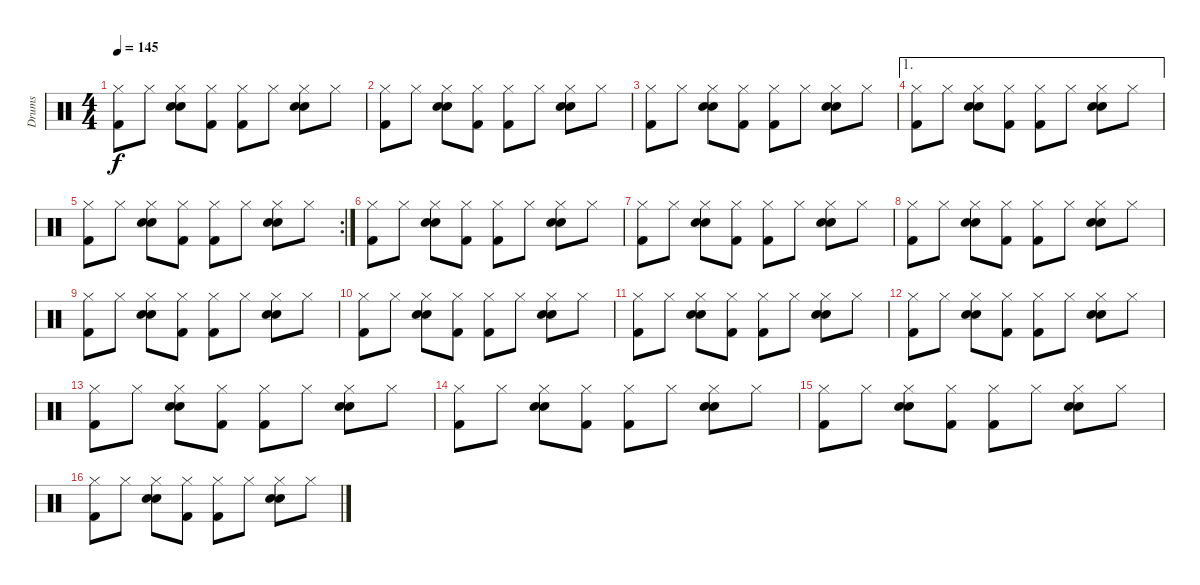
\track ("Drums" "Drums") {instrument percussion}
\staff {score}
\articulation defaults
\ts (4 4)
\tempo 145
\clef neutral
\ks c
("Hi-Hat (closed)" "Kick (hit) 2").8{dy f} "Hi-Hat (closed)".8 ("Hi-Hat (closed)" "Electric Snare (hit)" "Snare (hit) 2").8 ("Hi-Hat (closed)" "Kick (hit) 2").8 ("Hi-Hat (closed)" "Kick (hit) 2").8 "Hi-Hat (closed)".8 ("Hi-Hat (closed)" "Electric Snare (hit)" "Snare (hit) 2").8 "Hi-Hat (closed)".8 |
("Hi-Hat (closed)" "Kick (hit) 2").8 "Hi-Hat (closed)".8 ("Hi-Hat (closed)" "Electric Snare (hit)" "Snare (hit) 2").8 ("Hi-Hat (closed)" "Kick (hit) 2").8 ("Hi-Hat (closed)" "Kick (hit) 2").8 "Hi-Hat (closed)".8 ("Hi-Hat (closed)" "Electric Snare (hit)" "Snare (hit) 2").8 "Hi-Hat (closed)".8 |
("Hi-Hat (closed)" "Kick (hit) 2").8 "Hi-Hat (closed)".8 ("Hi-Hat (closed)" "Electric Snare (hit)" "Snare (hit) 2").8 ("Hi-Hat (closed)" "Kick (hit) 2").8 ("Hi-Hat (closed)" "Kick (hit) 2").8 "Hi-Hat (closed)".8 ("Hi-Hat (closed)" "Electric Snare (hit)" "Snare (hit) 2").8 "Hi-Hat (closed)".8 |
\ae 1
("Hi-Hat (closed)" "Kick (hit) 2").8 "Hi-Hat (closed)".8 ("Hi-Hat (closed)" "Electric Snare (hit)" "Snare (hit) 2").8 ("Hi-Hat (closed)" "Kick (hit) 2").8 ("Hi-Hat (closed)" "Kick (hit) 2").8 "Hi-Hat (closed)".8 ("Hi-Hat (closed)" "Electric Snare (hit)" "Snare (hit) 2").8 "Hi-Hat (closed)".8 |
\rc 2
("Hi-Hat (closed)" "Kick (hit) 2").8 "Hi-Hat (closed)".8 ("Hi-Hat (closed)" "Electric Snare (hit)" "Snare (hit) 2").8 ("Hi-Hat (closed)" "Kick (hit) 2").8 ("Hi-Hat (closed)" "Kick (hit) 2").8 "Hi-Hat (closed)".8 ("Hi-Hat (closed)" "Electric Snare (hit)" "Snare (hit) 2").8 "Hi-Hat (closed)".8 |
("Hi-Hat (closed)" "Kick (hit) 2").8 "Hi-Hat (closed)".8 ("Hi-Hat (closed)" "Electric Snare (hit)" "Snare (hit) 2").8 ("Hi-Hat (closed)" "Kick (hit) 2").8 ("Hi-Hat (closed)" "Kick (hit) 2").8 "Hi-Hat (closed)".8 ("Hi-Hat (closed)" "Electric Snare (hit)" "Snare (hit) 2").8 "Hi-Hat (closed)".8 |
("Hi-Hat (closed)" "Kick (hit) 2").8 "Hi-Hat (closed)".8 ("Hi-Hat (closed)" "Electric Snare (hit)" "Snare (hit) 2").8 ("Hi-Hat (closed)" "Kick (hit) 2").8 ("Hi-Hat (closed)" "Kick (hit) 2").8 "Hi-Hat (closed)".8 ("Hi-Hat (closed)" "Electric Snare (hit)" "Snare (hit) 2").8 "Hi-Hat (closed)".8 |
("Hi-Hat (closed)" "Kick (hit) 2").8 "Hi-Hat (closed)".8 ("Hi-Hat (closed)" "Electric Snare (hit)" "Snare (hit) 2").8 ("Hi-Hat (closed)" "Kick (hit) 2").8 ("Hi-Hat (closed)" "Kick (hit) 2").8 "Hi-Hat (closed)".8 ("Hi-Hat (closed)" "Electric Snare (hit)" "Snare (hit) 2").8 "Hi-Hat (closed)".8 |
("Hi-Hat (closed)" "Kick (hit) 2").8 "Hi-Hat (closed)".8 ("Hi-Hat (closed)" "Electric Snare (hit)" "Snare (hit) 2").8 ("Hi-Hat (closed)" "Kick (hit) 2").8 ("Hi-Hat (closed)" "Kick (hit) 2").8 "Hi-Hat (closed)".8 ("Hi-Hat (closed)" "Electric Snare (hit)" "Snare (hit) 2").8 "Hi-Hat (closed)".8 |
("Hi-Hat (closed)" "Kick (hit) 2").8 "Hi-Hat (closed)".8 ("Hi-Hat (closed)" "Electric Snare (hit)" "Snare (hit) 2").8 ("Hi-Hat (closed)" "Kick (hit) 2").8 ("Hi-Hat (closed)" "Kick (hit) 2").8 "Hi-Hat (closed)".8 ("Hi-Hat (closed)" "Electric Snare (hit)" "Snare (hit) 2").8 "Hi-Hat (closed)".8 |
("Hi-Hat (closed)" "Kick (hit) 2").8 "Hi-Hat (closed)".8 ("Hi-Hat (closed)" "Electric Snare (hit)" "Snare (hit) 2").8 ("Hi-Hat (closed)" "Kick (hit) 2").8 ("Hi-Hat (closed)" "Kick (hit) 2").8 "Hi-Hat (closed)".8 ("Hi-Hat (closed)" "Electric Snare (hit)" "Snare (hit) 2").8 "Hi-Hat (closed)".8 |
("Hi-Hat (closed)" "Kick (hit) 2").8 "Hi-Hat (closed)".8 ("Hi-Hat (closed)" "Electric Snare (hit)" "Snare (hit) 2").8 ("Hi-Hat (closed)" "Kick (hit) 2").8 ("Hi-Hat (closed)" "Kick (hit) 2").8 "Hi-Hat (closed)".8 ("Hi-Hat (closed)" "Electric Snare (hit)" "Snare (hit) 2").8 "Hi-Hat (closed)".8 |
("Hi-Hat (closed)" "Kick (hit) 2").8 "Hi-Hat (closed)".8 ("Hi-Hat (closed)" "Electric Snare (hit)" "Snare (hit) 2").8 ("Hi-Hat (closed)" "Kick (hit) 2").8 ("Hi-Hat (closed)" "Kick (hit) 2").8 "Hi-Hat (closed)".8 ("Hi-Hat (closed)" "Electric Snare (hit)" "Snare (hit) 2").8 "Hi-Hat (closed)".8 |
("Hi-Hat (closed)" "Kick (hit) 2").8 "Hi-Hat (closed)".8 ("Hi-Hat (closed)" "Electric Snare (hit)" "Snare (hit) 2").8 ("Hi-Hat (closed)" "Kick (hit) 2").8 ("Hi-Hat (closed)" "Kick (hit) 2").8 "Hi-Hat (closed)".8 ("Hi-Hat (closed)" "Electric Snare (hit)" "Snare (hit) 2").8 "Hi-Hat (closed)".8 |
("Hi-Hat (closed)" "Kick (hit) 2").8 "Hi-Hat (closed)".8 ("Hi-Hat (closed)" "Electric Snare (hit)" "Snare (hit) 2").8 ("Hi-Hat (closed)" "Kick (hit) 2").8 ("Hi-Hat (closed)" "Kick (hit) 2").8 "Hi-Hat (closed)".8 ("Hi-Hat (closed)" "Electric Snare (hit)" "Snare (hit) 2").8 "Hi-Hat (closed)".8 |
("Hi-Hat (closed)" "Kick (hit) 2").8 "Hi-Hat (closed)".8 ("Hi-Hat (closed)" "Electric Snare (hit)" "Snare (hit) 2").8 ("Hi-Hat (closed)" "Kick (hit) 2").8 ("Hi-Hat (closed)" "Kick (hit) 2").8 "Hi-Hat (closed)".8 ("Hi-Hat (closed)" "Electric Snare (hit)" "Snare (hit) 2").8 "Hi-Hat (closed)".8
